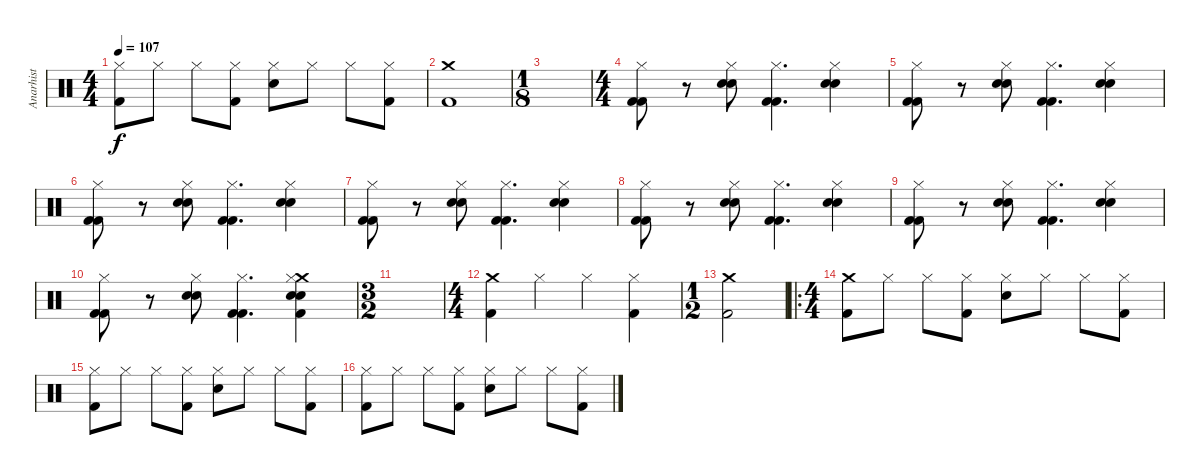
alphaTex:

\track ("Anarhist" "Anarhist") {instrument percussion}
\staff {score}
\articulation defaults
\ts (4 4)
\tempo 107
\clef neutral
\ks c
("Kick (hit) 2" "Hi-Hat (closed)").8{dy f} "Hi-Hat (closed)".8 "Hi-Hat (closed)".8 ("Kick (hit) 2" "Hi-Hat (closed)").8 ("Snare (hit) 2" "Hi-Hat (closed)").8 "Hi-Hat (closed)".8 "Hi-Hat (closed)".8 ("Kick (hit) 2" "Hi-Hat (closed)").8 |
("Crash medium (hit)" "Kick (hit) 2").1 |
\ts (1 8)
|
\ts (4 4)
("Kick (hit) 2" "Kick (hit) 2" "Hi-Hat (closed)").8 r.8 ("Snare (hit) 2" "Snare (hit) 2" "Hi-Hat (closed)").8 ("Kick (hit) 2" "Kick (hit) 2" "Hi-Hat (closed)").4{d} ("Snare (hit) 2" "Snare (hit) 2" "Hi-Hat (closed)").4 |
("Kick (hit) 2" "Kick (hit) 2" "Hi-Hat (closed)").8 r.8 ("Snare (hit) 2" "Snare (hit) 2" "Hi-Hat (closed)").8 ("Kick (hit) 2" "Kick (hit) 2" "Hi-Hat (closed)").4{d} ("Snare (hit) 2" "Snare (hit) 2" "Hi-Hat (closed)").4 |
("Kick (hit) 2" "Kick (hit) 2" "Hi-Hat (closed)").8 r.8 ("Snare (hit) 2" "Snare (hit) 2" "Hi-Hat (closed)").8 ("Kick (hit) 2" "Kick (hit) 2" "Hi-Hat (closed)").4{d} ("Snare (hit) 2" "Snare (hit) 2" "Hi-Hat (closed)").4 |
("Kick (hit) 2" "Kick (hit) 2" "Hi-Hat (closed)").8 r.8 ("Snare (hit) 2" "Snare (hit) 2" "Hi-Hat (closed)").8 ("Kick (hit) 2" "Kick (hit) 2" "Hi-Hat (closed)").4{d} ("Snare (hit) 2" "Snare (hit) 2" "Hi-Hat (closed)").4 |
("Kick (hit) 2" "Kick (hit) 2" "Hi-Hat (closed)").8 r.8 ("Snare (hit) 2" "Snare (hit) 2" "Hi-Hat (closed)").8 ("Kick (hit) 2" "Kick (hit) 2" "Hi-Hat (closed)").4{d} ("Snare (hit) 2" "Snare (hit) 2" "Hi-Hat (closed)").4 |
("Kick (hit) 2" "Kick (hit) 2" "Hi-Hat (closed)").8 r.8 ("Snare (hit) 2" "Snare (hit) 2" "Hi-Hat (closed)").8 ("Kick (hit) 2" "Kick (hit) 2" "Hi-Hat (closed)").4{d} ("Snare (hit) 2" "Snare (hit) 2" "Hi-Hat (closed)").4 |
("Kick (hit) 2" "Kick (hit) 2" "Hi-Hat (closed)").8 r.8 ("Snare (hit) 2" "Snare (hit) 2" "Hi-Hat (closed)").8 ("Kick (hit) 2" "Kick (hit) 2" "Hi-Hat (closed)").4{d} ("Snare (hit) 2" "Snare (hit) 2" "Crash medium (hit)" "Hi-Hat (closed)" "Kick (hit) 2").4 |
\ts (3 2)
|
\ts (4 4)
("Crash medium (hit)" "Kick (hit) 2").4 "Hi-Hat (closed)".4 "Hi-Hat (closed)".4 ("Kick (hit) 2" "Hi-Hat (closed)").4 |
\ts (1 2)
("Crash medium (hit)" "Kick (hit) 2").2 |
\ro
\ts (4 4)
("Crash medium (hit)" "Kick (hit) 2").8 "Hi-Hat (closed)".8 "Hi-Hat (closed)".8 ("Kick (hit) 2" "Hi-Hat (closed)").8 ("Snare (hit) 2" "Hi-Hat (closed)").8 "Hi-Hat (closed)".8 "Hi-Hat (closed)".8 ("Kick (hit) 2" "Hi-Hat (closed)").8 |
("Kick (hit) 2" "Hi-Hat (closed)").8 "Hi-Hat (closed)".8 "Hi-Hat (closed)".8 ("Kick (hit) 2" "Hi-Hat (closed)").8 ("Snare (hit) 2" "Hi-Hat (closed)").8 "Hi-Hat (closed)".8 "Hi-Hat (closed)".8 ("Kick (hit) 2" "Hi-Hat (closed)").8 |
("Kick (hit) 2" "Hi-Hat (closed)").8 "Hi-Hat (closed)".8 "Hi-Hat (closed)".8 ("Kick (hit) 2" "Hi-Hat (closed)").8 ("Snare (hit) 2" "Hi-Hat (closed)").8 "Hi-Hat (closed)".8 "Hi-Hat (closed)".8 ("Kick (hit) 2" "Hi-Hat (closed)").8
